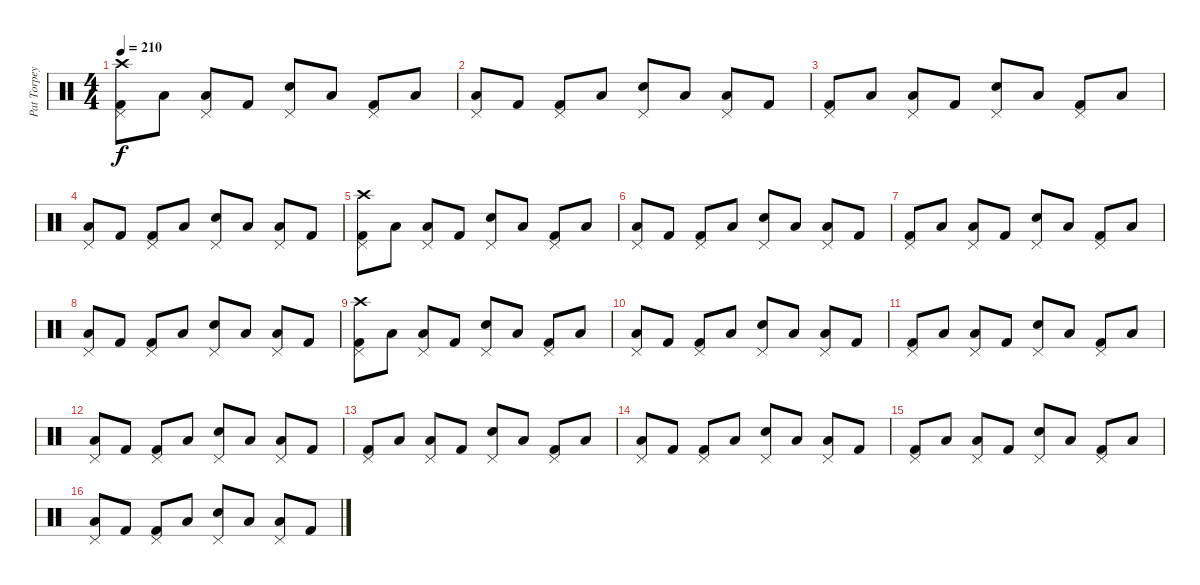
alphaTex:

\track ("Pat Torpey" "Pat Torpey") {instrument percussion}
\staff {score}
\articulation defaults
\ts (4 4)
\tempo 210
\clef neutral
\ks c
("Crash high (hit)" "Pedal Hi-Hat (hit)" "Kick (hit) 2").8{dy f} "Low Floor Tom (hit)".8 ("Pedal Hi-Hat (hit)" "Low Floor Tom (hit)").8 "Kick (hit) 2".8 ("Pedal Hi-Hat (hit)" "Snare (hit) 2").8 "Low Floor Tom (hit)".8 ("Pedal Hi-Hat (hit)" "Kick (hit) 2").8 "Low Floor Tom (hit)".8 |
("Pedal Hi-Hat (hit)" "Low Floor Tom (hit)").8 "Kick (hit) 2".8 ("Pedal Hi-Hat (hit)" "Kick (hit) 2").8 "Low Floor Tom (hit)".8 ("Pedal Hi-Hat (hit)" "Snare (hit) 2").8 "Low Floor Tom (hit)".8 ("Pedal Hi-Hat (hit)" "Low Floor Tom (hit)").8 "Kick (hit) 2".8 |
("Pedal Hi-Hat (hit)" "Kick (hit) 2").8 "Low Floor Tom (hit)".8 ("Pedal Hi-Hat (hit)" "Low Floor Tom (hit)").8 "Kick (hit) 2".8 ("Pedal Hi-Hat (hit)" "Snare (hit) 2").8 "Low Floor Tom (hit)".8 ("Pedal Hi-Hat (hit)" "Kick (hit) 2").8 "Low Floor Tom (hit)".8 |
("Pedal Hi-Hat (hit)" "Low Floor Tom (hit)").8 "Kick (hit) 2".8 ("Pedal Hi-Hat (hit)" "Kick (hit) 2").8 "Low Floor Tom (hit)".8 ("Pedal Hi-Hat (hit)" "Snare (hit) 2").8 "Low Floor Tom (hit)".8 ("Pedal Hi-Hat (hit)" "Low Floor Tom (hit)").8 "Kick (hit) 2".8 |
("Crash high (hit)" "Pedal Hi-Hat (hit)" "Kick (hit) 2").8 "Low Floor Tom (hit)".8 ("Pedal Hi-Hat (hit)" "Low Floor Tom (hit)").8 "Kick (hit) 2".8 ("Pedal Hi-Hat (hit)" "Snare (hit) 2").8 "Low Floor Tom (hit)".8 ("Pedal Hi-Hat (hit)" "Kick (hit) 2").8 "Low Floor Tom (hit)".8 |
("Pedal Hi-Hat (hit)" "Low Floor Tom (hit)").8 "Kick (hit) 2".8 ("Pedal Hi-Hat (hit)" "Kick (hit) 2").8 "Low Floor Tom (hit)".8 ("Pedal Hi-Hat (hit)" "Snare (hit) 2").8 "Low Floor Tom (hit)".8 ("Pedal Hi-Hat (hit)" "Low Floor Tom (hit)").8 "Kick (hit) 2".8 |
("Pedal Hi-Hat (hit)" "Kick (hit) 2").8 "Low Floor Tom (hit)".8 ("Pedal Hi-Hat (hit)" "Low Floor Tom (hit)").8 "Kick (hit) 2".8 ("Pedal Hi-Hat (hit)" "Snare (hit) 2").8 "Low Floor Tom (hit)".8 ("Pedal Hi-Hat (hit)" "Kick (hit) 2").8 "Low Floor Tom (hit)".8 |
("Pedal Hi-Hat (hit)" "Low Floor Tom (hit)").8 "Kick (hit) 2".8 ("Pedal Hi-Hat (hit)" "Kick (hit) 2").8 "Low Floor Tom (hit)".8 ("Pedal Hi-Hat (hit)" "Snare (hit) 2").8 "Low Floor Tom (hit)".8 ("Pedal Hi-Hat (hit)" "Low Floor Tom (hit)").8 "Kick (hit) 2".8 |
("Crash high (hit)" "Pedal Hi-Hat (hit)" "Kick (hit) 2").8 "Low Floor Tom (hit)".8 ("Pedal Hi-Hat (hit)" "Low Floor Tom (hit)").8 "Kick (hit) 2".8 ("Pedal Hi-Hat (hit)" "Snare (hit) 2").8 "Low Floor Tom (hit)".8 ("Pedal Hi-Hat (hit)" "Kick (hit) 2").8 "Low Floor Tom (hit)".8 |
("Pedal Hi-Hat (hit)" "Low Floor Tom (hit)").8 "Kick (hit) 2".8 ("Pedal Hi-Hat (hit)" "Kick (hit) 2").8 "Low Floor Tom (hit)".8 ("Pedal Hi-Hat (hit)" "Snare (hit) 2").8 "Low Floor Tom (hit)".8 ("Pedal Hi-Hat (hit)" "Low Floor Tom (hit)").8 "Kick (hit) 2".8 |
("Pedal Hi-Hat (hit)" "Kick (hit) 2").8 "Low Floor Tom (hit)".8 ("Pedal Hi-Hat (hit)" "Low Floor Tom (hit)").8 "Kick (hit) 2".8 ("Pedal Hi-Hat (hit)" "Snare (hit) 2").8 "Low Floor Tom (hit)".8 ("Pedal Hi-Hat (hit)" "Kick (hit) 2").8 "Low Floor Tom (hit)".8 |
("Pedal Hi-Hat (hit)" "Low Floor Tom (hit)").8 "Kick (hit) 2".8 ("Pedal Hi-Hat (hit)" "Kick (hit) 2").8 "Low Floor Tom (hit)".8 ("Pedal Hi-Hat (hit)" "Snare (hit) 2").8 "Low Floor Tom (hit)".8 ("Pedal Hi-Hat (hit)" "Low Floor Tom (hit)").8 "Kick (hit) 2".8 |
("Pedal Hi-Hat (hit)" "Kick (hit) 2").8 "Low Floor Tom (hit)".8 ("Pedal Hi-Hat (hit)" "Low Floor Tom (hit)").8 "Kick (hit) 2".8 ("Pedal Hi-Hat (hit)" "Snare (hit) 2").8 "Low Floor Tom (hit)".8 ("Pedal Hi-Hat (hit)" "Kick (hit) 2").8 "Low Floor Tom (hit)".8 |
("Pedal Hi-Hat (hit)" "Low Floor Tom (hit)").8 "Kick (hit) 2".8 ("Pedal Hi-Hat (hit)" "Kick (hit) 2").8 "Low Floor Tom (hit)".8 ("Pedal Hi-Hat (hit)" "Snare (hit) 2").8 "Low Floor Tom (hit)".8 ("Pedal Hi-Hat (hit)" "Low Floor Tom (hit)").8 "Kick (hit) 2".8 |
("Pedal Hi-Hat (hit)" "Kick (hit) 2").8 "Low Floor Tom (hit)".8 ("Pedal Hi-Hat (hit)" "Low Floor Tom (hit)").8 "Kick (hit) 2".8 ("Pedal Hi-Hat (hit)" "Snare (hit) 2").8 "Low Floor Tom (hit)".8 ("Pedal Hi-Hat (hit)" "Kick (hit) 2").8 "Low Floor Tom (hit)".8 |
("Pedal Hi-Hat (hit)" "Low Floor Tom (hit)").8 "Kick (hit) 2".8 ("Pedal Hi-Hat (hit)" "Kick (hit) 2").8 "Low Floor Tom (hit)".8 ("Pedal Hi-Hat (hit)" "Snare (hit) 2").8 "Low Floor Tom (hit)".8 ("Pedal Hi-Hat (hit)" "Low Floor Tom (hit)").8 "Kick (hit) 2".8
